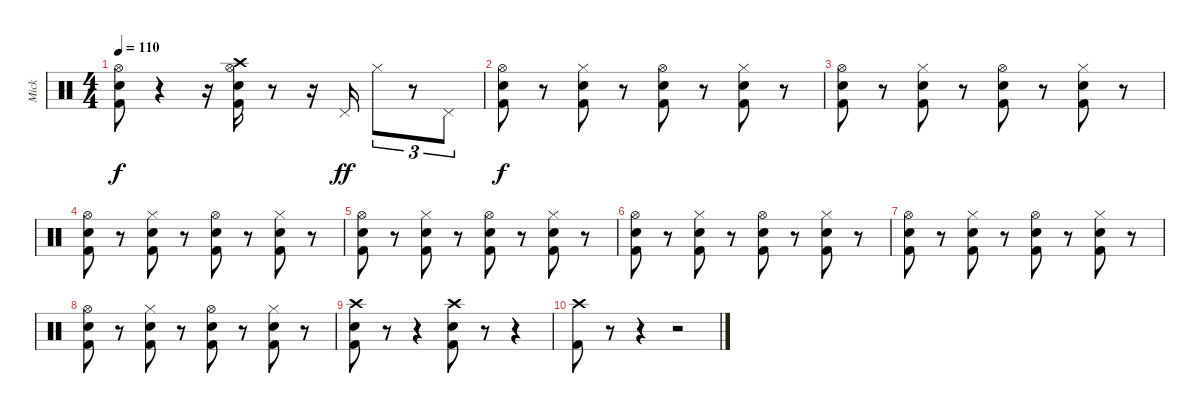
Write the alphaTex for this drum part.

\track ("Mick" "Mick") {instrument percussion}
\staff {score}
\articulation defaults
\ts (4 4)
\tempo 110
\clef neutral
\ks c
("Hi-Hat (open)" "Snare (hit) 2" "Kick (hit) 2").8{dy f} r.4 r.16 ("Crash high (hit)" "Hi-Hat (open)" "Snare (hit) 2" "Kick (hit) 2").16 r.8 r.16 "Pedal Hi-Hat (hit)".16{dy ff} "Hi-Hat (closed)".8{tu (3 2)} r.8{tu (3 2)} "Pedal Hi-Hat (hit)".8{tu (3 2)} |
("Hi-Hat (open)" "Snare (hit) 2" "Kick (hit) 2").8{dy f} r.8 ("Hi-Hat (closed)" "Snare (hit) 2" "Kick (hit) 2").8 r.8 ("Hi-Hat (open)" "Snare (hit) 2" "Kick (hit) 2").8 r.8 ("Hi-Hat (closed)" "Snare (hit) 2" "Kick (hit) 2").8 r.8 |
("Hi-Hat (open)" "Snare (hit) 2" "Kick (hit) 2").8 r.8 ("Hi-Hat (closed)" "Snare (hit) 2" "Kick (hit) 2").8 r.8 ("Hi-Hat (open)" "Snare (hit) 2" "Kick (hit) 2").8 r.8 ("Hi-Hat (closed)" "Snare (hit) 2" "Kick (hit) 2").8 r.8 |
("Hi-Hat (open)" "Snare (hit) 2" "Kick (hit) 2").8 r.8 ("Hi-Hat (closed)" "Snare (hit) 2" "Kick (hit) 2").8 r.8 ("Hi-Hat (open)" "Snare (hit) 2" "Kick (hit) 2").8 r.8 ("Hi-Hat (closed)" "Snare (hit) 2" "Kick (hit) 2").8 r.8 |
("Hi-Hat (open)" "Snare (hit) 2" "Kick (hit) 2").8 r.8 ("Hi-Hat (closed)" "Snare (hit) 2" "Kick (hit) 2").8 r.8 ("Hi-Hat (open)" "Snare (hit) 2" "Kick (hit) 2").8 r.8 ("Hi-Hat (closed)" "Snare (hit) 2" "Kick (hit) 2").8 r.8 |
("Hi-Hat (open)" "Snare (hit) 2" "Kick (hit) 2").8 r.8 ("Hi-Hat (closed)" "Snare (hit) 2" "Kick (hit) 2").8 r.8 ("Hi-Hat (open)" "Snare (hit) 2" "Kick (hit) 2").8 r.8 ("Hi-Hat (closed)" "Snare (hit) 2" "Kick (hit) 2").8 r.8 |
("Hi-Hat (open)" "Snare (hit) 2" "Kick (hit) 2").8 r.8 ("Hi-Hat (closed)" "Snare (hit) 2" "Kick (hit) 2").8 r.8 ("Hi-Hat (open)" "Snare (hit) 2" "Kick (hit) 2").8 r.8 ("Hi-Hat (closed)" "Snare (hit) 2" "Kick (hit) 2").8 r.8 |
("Hi-Hat (open)" "Snare (hit) 2" "Kick (hit) 2").8 r.8 ("Hi-Hat (closed)" "Snare (hit) 2" "Kick (hit) 2").8 r.8 ("Hi-Hat (open)" "Snare (hit) 2" "Kick (hit) 2").8 r.8 ("Hi-Hat (closed)" "Snare (hit) 2" "Kick (hit) 2").8 r.8 |
("Crash high (hit)" "Snare (hit) 2" "Kick (hit) 2").8 r.8 r.4 ("Crash high (hit)" "Snare (hit) 2" "Kick (hit) 2").8 r.8 r.4 |
("Crash high (hit)" "Kick (hit) 2").8 r.8 r.4 r.2
